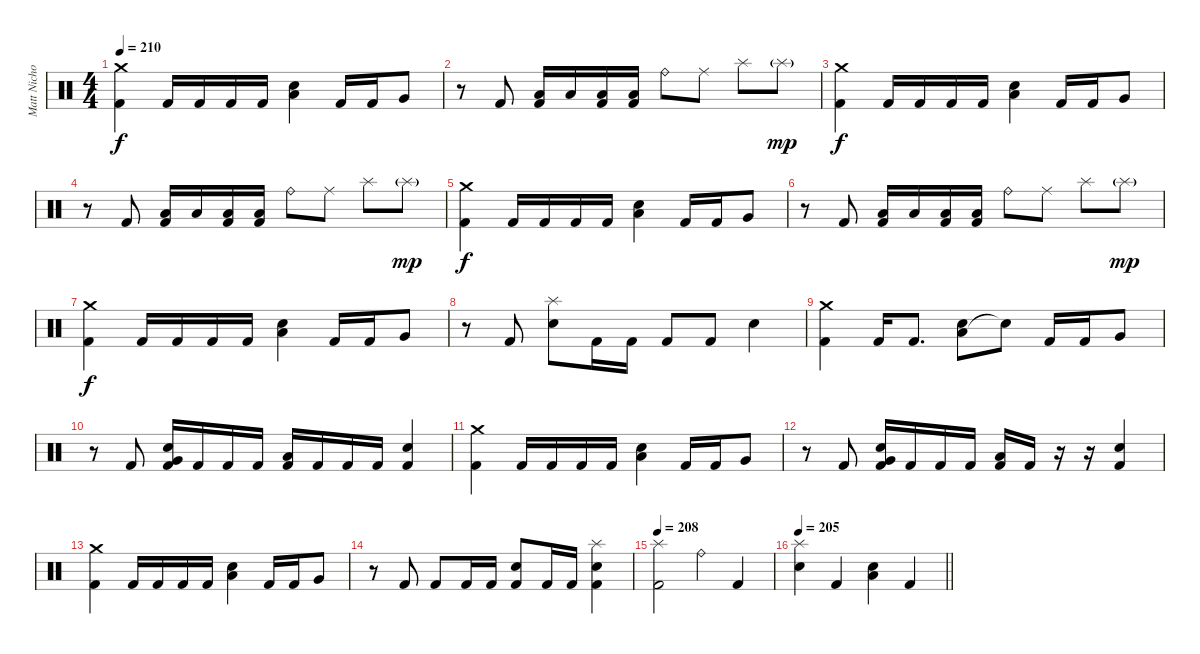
\track ("Matt Nicholls" "Matt Nicho") {instrument percussion}
\staff {score}
\articulation defaults
\ts (4 4)
\tempo 210
\clef neutral
\ks c
("Crash medium (hit)" "Kick (hit) 2").4{dy f} "Kick (hit) 2".16 "Kick (hit) 2".16 "Kick (hit) 2".16 "Kick (hit) 2".16 ("Low Tom (hit)" "Snare (hit) 2").4 "Kick (hit) 2".16 "Kick (hit) 2".16 "Very Low Tom (hit)".8 |
r.8 "Kick (hit) 2".8 ("Low Floor Tom (hit)" "Kick (hit) 2").16 "Low Floor Tom (hit)".16 ("Low Floor Tom (hit)" "Kick (hit) 2").16 ("Low Floor Tom (hit)" "Kick (hit) 2").16 "Ride (bell)".8 "Ride (middle)".8 "Splash (hit)".8 "Splash (hit)"{g}.8{dy mp} |
("Crash medium (hit)" "Kick (hit) 2").4{dy f} "Kick (hit) 2".16 "Kick (hit) 2".16 "Kick (hit) 2".16 "Kick (hit) 2".16 ("Low Tom (hit)" "Snare (hit) 2").4 "Kick (hit) 2".16 "Kick (hit) 2".16 "Very Low Tom (hit)".8 |
r.8 "Kick (hit) 2".8 ("Low Floor Tom (hit)" "Kick (hit) 2").16 "Low Floor Tom (hit)".16 ("Low Floor Tom (hit)" "Kick (hit) 2").16 ("Low Floor Tom (hit)" "Kick (hit) 2").16 "Ride (bell)".8 "Ride (middle)".8 "Splash (hit)".8 "Splash (hit)"{g}.8{dy mp} |
("Crash medium (hit)" "Kick (hit) 2").4{dy f} "Kick (hit) 2".16 "Kick (hit) 2".16 "Kick (hit) 2".16 "Kick (hit) 2".16 ("Low Tom (hit)" "Snare (hit) 2").4 "Kick (hit) 2".16 "Kick (hit) 2".16 "Very Low Tom (hit)".8 |
r.8 "Kick (hit) 2".8 ("Low Floor Tom (hit)" "Kick (hit) 2").16 "Low Floor Tom (hit)".16 ("Low Floor Tom (hit)" "Kick (hit) 2").16 ("Low Floor Tom (hit)" "Kick (hit) 2").16 "Ride (bell)".8 "Ride (middle)".8 "Splash (hit)".8 "Splash (hit)"{g}.8{dy mp} |
("Crash medium (hit)" "Kick (hit) 2").4{dy f} "Kick (hit) 2".16 "Kick (hit) 2".16 "Kick (hit) 2".16 "Kick (hit) 2".16 ("Low Tom (hit)" "Snare (hit) 2").4 "Kick (hit) 2".16 "Kick (hit) 2".16 "Very Low Tom (hit)".8 |
r.8 "Kick (hit) 2".8 ("Splash (hit)" "Snare (hit) 2").8 "Kick (hit) 2".16 "Kick (hit) 2".16 "Kick (hit) 2".8 "Kick (hit) 2".8 "Snare (hit) 2".4 |
("Crash medium (hit)" "Kick (hit) 2").4 "Kick (hit) 2".16 "Kick (hit) 2".8{d} ("Low Tom (hit)" "Snare (hit) 2").8 "Snare (hit)"{t}.8 "Kick (hit) 2".16 "Kick (hit) 2".16 "Very Low Tom (hit)".8 |
r.8 "Kick (hit) 2".8 ("Very Low Tom (hit)" "Snare (hit) 2" "Kick (hit) 2").16 "Kick (hit) 2".16 "Kick (hit) 2".16 "Kick (hit) 2".16 ("Low Floor Tom (hit)" "Kick (hit) 2").16 "Kick (hit) 2".16 "Kick (hit) 2".16 "Kick (hit) 2".16 ("Snare (hit) 2" "Kick (hit) 2").4 |
("Crash medium (hit)" "Kick (hit) 2").4 "Kick (hit) 2".16 "Kick (hit) 2".16 "Kick (hit) 2".16 "Kick (hit) 2".16 ("Low Tom (hit)" "Snare (hit) 2").4 "Kick (hit) 2".16 "Kick (hit) 2".16 "Very Low Tom (hit)".8 |
r.8 "Kick (hit) 2".8 ("Very Low Tom (hit)" "Snare (hit) 2" "Kick (hit) 2").16 "Kick (hit) 2".16 "Kick (hit) 2".16 "Kick (hit) 2".16 ("Low Floor Tom (hit)" "Kick (hit) 2").16 "Kick (hit) 2".16 r.16 r.16 ("Snare (hit) 2" "Kick (hit) 2").4 |
("Crash medium (hit)" "Kick (hit) 2").4 "Kick (hit) 2".16 "Kick (hit) 2".16 "Kick (hit) 2".16 "Kick (hit) 2".16 ("Low Tom (hit)" "Snare (hit) 2").4 "Kick (hit) 2".16 "Kick (hit) 2".16 "Very Low Tom (hit)".8 |
r.8 "Kick (hit) 2".8 "Kick (hit) 2".8 "Kick (hit) 2".16 "Kick (hit) 2".16 ("Snare (hit) 2" "Kick (hit) 2").8 "Kick (hit) 2".16 "Kick (hit) 2".16 ("Splash (hit)" "Snare (hit) 2" "Kick (hit) 2").4 |
\tempo 208
("Splash (hit)" "Kick (hit) 2").2 "Ride (bell)".4 "Kick (hit) 2".4 |
\tempo 205
\barLineRight lightlight
("Splash (hit)" "Snare (hit) 2").4 "Kick (hit) 2".4 ("Low Tom (hit)" "Snare (hit) 2").4 "Kick (hit) 2".4
